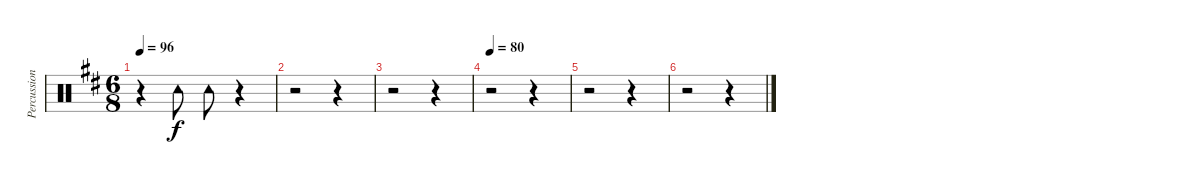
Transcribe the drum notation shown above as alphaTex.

\track ("Percussion" "Percussion") {instrument percussion}
\staff {score}
\articulation defaults
\ts (6 8)
\tempo 96
\clef neutral
\ks bminor
r.4{dy f} "Tambourine (hit)".8 "Tambourine (hit)".8 r.4 |
r.2 r.4 |
r.2 r.4 |
\tempo 80
r.2 r.4 |
r.2 r.4 |
r.2 r.4
